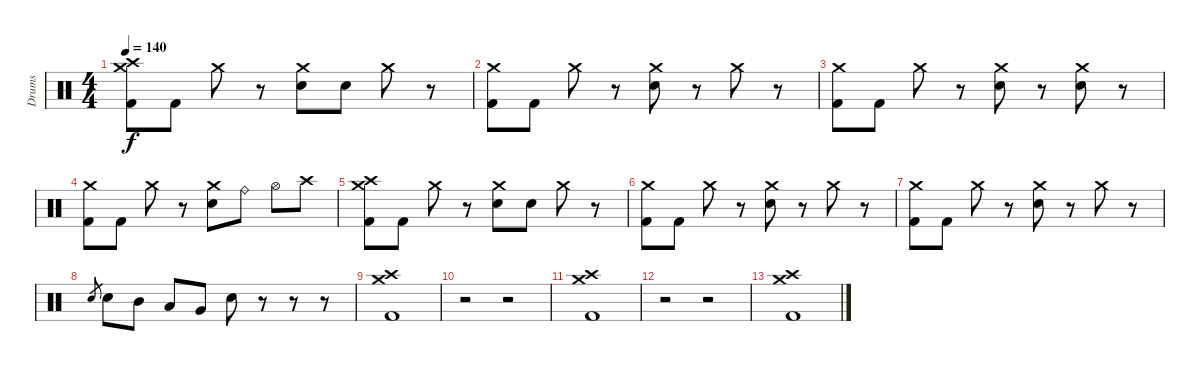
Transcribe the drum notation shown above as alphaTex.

\track ("Drums" "Drums") {instrument percussion}
\staff {score}
\articulation defaults
\ts (4 4)
\tempo 140
\clef neutral
\ks c
("Crash high (hit)" "Crash medium (hit)" "Kick (hit) 2").8{dy f} "Kick (hit) 2".8 "Crash medium (hit)".8 r.8 ("Crash medium (hit)" "Electric Snare (hit)").8 "Electric Snare (hit)".8 "Crash medium (hit)".8 r.8 |
("Crash medium (hit)" "Kick (hit) 2").8 "Kick (hit) 2".8 "Crash medium (hit)".8 r.8 ("Crash medium (hit)" "Electric Snare (hit)").8 r.8 "Crash medium (hit)".8 r.8 |
("Crash medium (hit)" "Kick (hit) 2").8 "Kick (hit) 2".8 "Crash medium (hit)".8 r.8 ("Crash medium (hit)" "Electric Snare (hit)").8 r.8 ("Crash medium (hit)" "Electric Snare (hit)").8 r.8 |
("Crash medium (hit)" "Kick (hit) 2").8 "Kick (hit) 2".8 "Crash medium (hit)".8 r.8 ("Crash medium (hit)" "Electric Snare (hit)").8 "Ride (bell)".8 "Hi-Hat (open)".8 "Crash high (hit)".8 |
("Crash high (hit)" "Crash medium (hit)" "Kick (hit) 2").8 "Kick (hit) 2".8 "Crash medium (hit)".8 r.8 ("Crash medium (hit)" "Electric Snare (hit)").8 "Electric Snare (hit)".8 "Crash medium (hit)".8 r.8 |
("Crash medium (hit)" "Kick (hit) 2").8 "Kick (hit) 2".8 "Crash medium (hit)".8 r.8 ("Crash medium (hit)" "Electric Snare (hit)").8 r.8 "Crash medium (hit)".8 r.8 |
("Crash medium (hit)" "Kick (hit) 2").8 "Kick (hit) 2".8 "Crash medium (hit)".8 r.8 ("Crash medium (hit)" "Electric Snare (hit)").8 r.8 "Crash medium (hit)".8 r.8 |
"Electric Snare (hit)".8{gr} "Electric Snare (hit)".8 "Mid Tom (hit)".8 "Low Tom (hit)".8 "Very Low Tom (hit)".8 "Electric Snare (hit)".8 r.8 r.8 r.8 |
("Crash high (hit)" "Crash medium (hit)" "Kick (hit) 2").1 |
r.2 r.2 |
("Crash high (hit)" "Crash medium (hit)" "Kick (hit) 2").1 |
r.2 r.2 |
("Crash high (hit)" "Crash medium (hit)" "Kick (hit) 2").1
